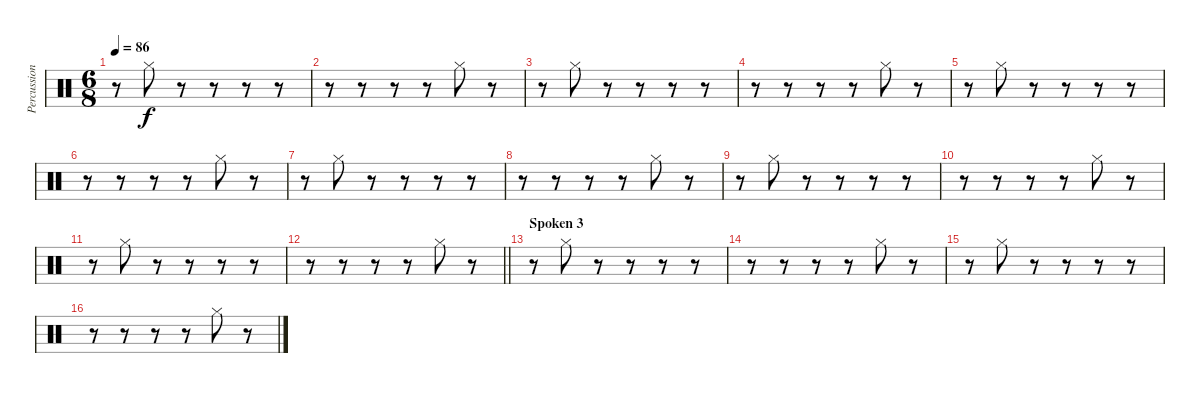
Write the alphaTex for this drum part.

\track ("Percussion" "Percussion") {instrument percussion}
\staff {score}
\articulation defaults
\ts (6 8)
\tempo 86
\clef neutral
\ks c
r.8{dy f} "Hi-Hat (closed)".8 r.8 r.8 r.8 r.8 |
r.8 r.8 r.8 r.8 "Hi-Hat (closed)".8 r.8 |
r.8 "Hi-Hat (closed)".8 r.8 r.8 r.8 r.8 |
r.8 r.8 r.8 r.8 "Hi-Hat (closed)".8 r.8 |
r.8 "Hi-Hat (closed)".8 r.8 r.8 r.8 r.8 |
r.8 r.8 r.8 r.8 "Hi-Hat (closed)".8 r.8 |
r.8 "Hi-Hat (closed)".8 r.8 r.8 r.8 r.8 |
r.8 r.8 r.8 r.8 "Hi-Hat (closed)".8 r.8 |
r.8 "Hi-Hat (closed)".8 r.8 r.8 r.8 r.8 |
r.8 r.8 r.8 r.8 "Hi-Hat (closed)".8 r.8 |
r.8 "Hi-Hat (closed)".8 r.8 r.8 r.8 r.8 |
\barLineRight lightlight
r.8 r.8 r.8 r.8 "Hi-Hat (closed)".8 r.8 |
\section ("" "Spoken 3")
r.8 "Hi-Hat (closed)".8 r.8 r.8 r.8 r.8 |
r.8 r.8 r.8 r.8 "Hi-Hat (closed)".8 r.8 |
r.8 "Hi-Hat (closed)".8 r.8 r.8 r.8 r.8 |
r.8 r.8 r.8 r.8 "Hi-Hat (closed)".8 r.8
